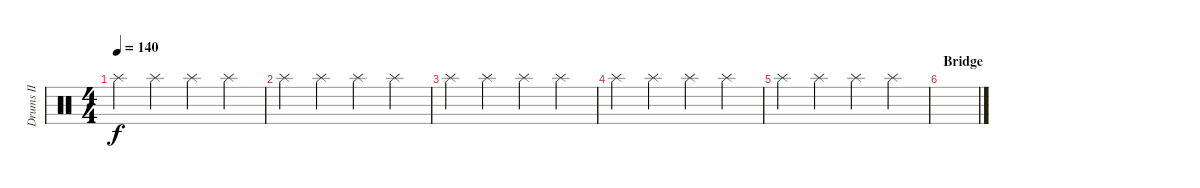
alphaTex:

\track ("Drums II" "Drums II") {instrument percussion}
\staff {score}
\articulation defaults
\ts (4 4)
\tempo 140
\clef neutral
\ks c "Splash (hit)".4{dy f} "Splash (hit)".4 "Splash (hit)".4 "Splash (hit)".4
|
"Splash (hit)".4 "Splash (hit)".4 "Splash (hit)".4 "Splash (hit)".4 |
"Splash (hit)".4 "Splash (hit)".4 "Splash (hit)".4 "Splash (hit)".4 |
"Splash (hit)".4 "Splash (hit)".4 "Splash (hit)".4 "Splash (hit)".4 |
"Splash (hit)".4 "Splash (hit)".4 "Splash (hit)".4 "Splash (hit)".4 |
\section ("" "Bridge")
